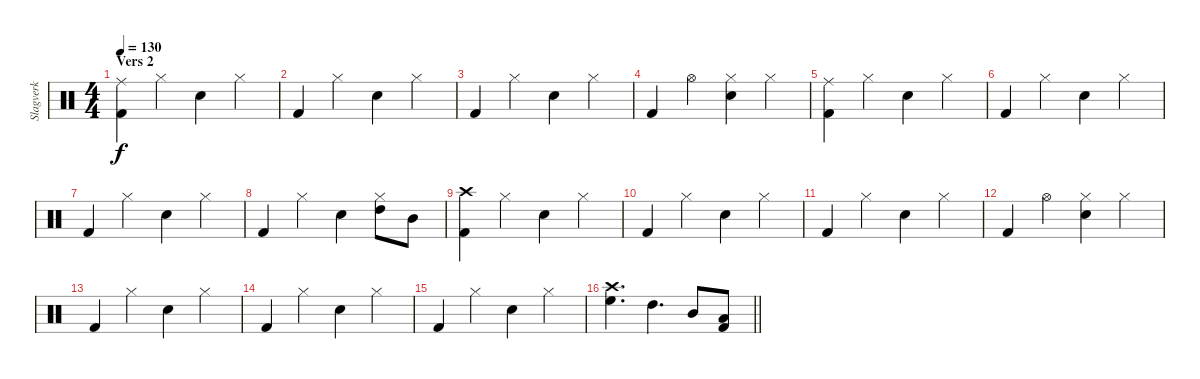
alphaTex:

\track ("Slagverk" "Slagverk") {instrument percussion}
\staff {score}
\articulation defaults
\ts (4 4)
\section ("" "Vers 2")
\tempo 130
\clef neutral
\ks c
("Kick (hit) 2" "Ride (middle)").4{dy f} "Hi-Hat (closed)".4 "Snare (hit) 2".4 "Hi-Hat (closed)".4 |
"Kick (hit) 2".4 "Hi-Hat (closed)".4 "Snare (hit) 2".4 "Hi-Hat (closed)".4 |
"Kick (hit) 2".4 "Hi-Hat (closed)".4 "Snare (hit) 2".4 "Hi-Hat (closed)".4 |
"Kick (hit) 2".4 "Hi-Hat (open)".4 ("Hi-Hat (closed)" "Snare (hit) 2").4 "Hi-Hat (closed)".4 |
("Kick (hit) 2" "Ride (middle)").4 "Hi-Hat (closed)".4 "Snare (hit) 2".4 "Hi-Hat (closed)".4 |
"Kick (hit) 2".4 "Hi-Hat (closed)".4 "Snare (hit) 2".4 "Hi-Hat (closed)".4 |
"Kick (hit) 2".4 "Hi-Hat (closed)".4 "Snare (hit) 2".4 "Hi-Hat (closed)".4 |
"Kick (hit) 2".4 "Hi-Hat (closed)".4 "Snare (hit) 2".4 ("Hi-Hat (closed)" "High Tom (hit)").8 "Mid Tom (hit)".8 |
("Kick (hit) 2" "Crash high (hit)").4 "Hi-Hat (closed)".4 "Snare (hit) 2".4 "Hi-Hat (closed)".4 |
"Kick (hit) 2".4 "Hi-Hat (closed)".4 "Snare (hit) 2".4 "Hi-Hat (closed)".4 |
"Kick (hit) 2".4 "Hi-Hat (closed)".4 "Snare (hit) 2".4 "Hi-Hat (closed)".4 |
"Kick (hit) 2".4 "Hi-Hat (open)".4 ("Hi-Hat (closed)" "Snare (hit) 2").4 "Hi-Hat (closed)".4 |
"Kick (hit) 2".4 "Hi-Hat (closed)".4 "Snare (hit) 2".4 "Hi-Hat (closed)".4 |
"Kick (hit) 2".4 "Hi-Hat (closed)".4 "Snare (hit) 2".4 "Hi-Hat (closed)".4 |
"Kick (hit) 2".4 "Hi-Hat (closed)".4 "Snare (hit) 2".4 "Hi-Hat (closed)".4 |
\barLineRight lightlight
("High Floor Tom (hit)" "Crash high (hit)").4{d} "High Tom (hit)".4{d} "Mid Tom (hit)".8 ("Low Tom (hit)" "Kick (hit) 2").8
